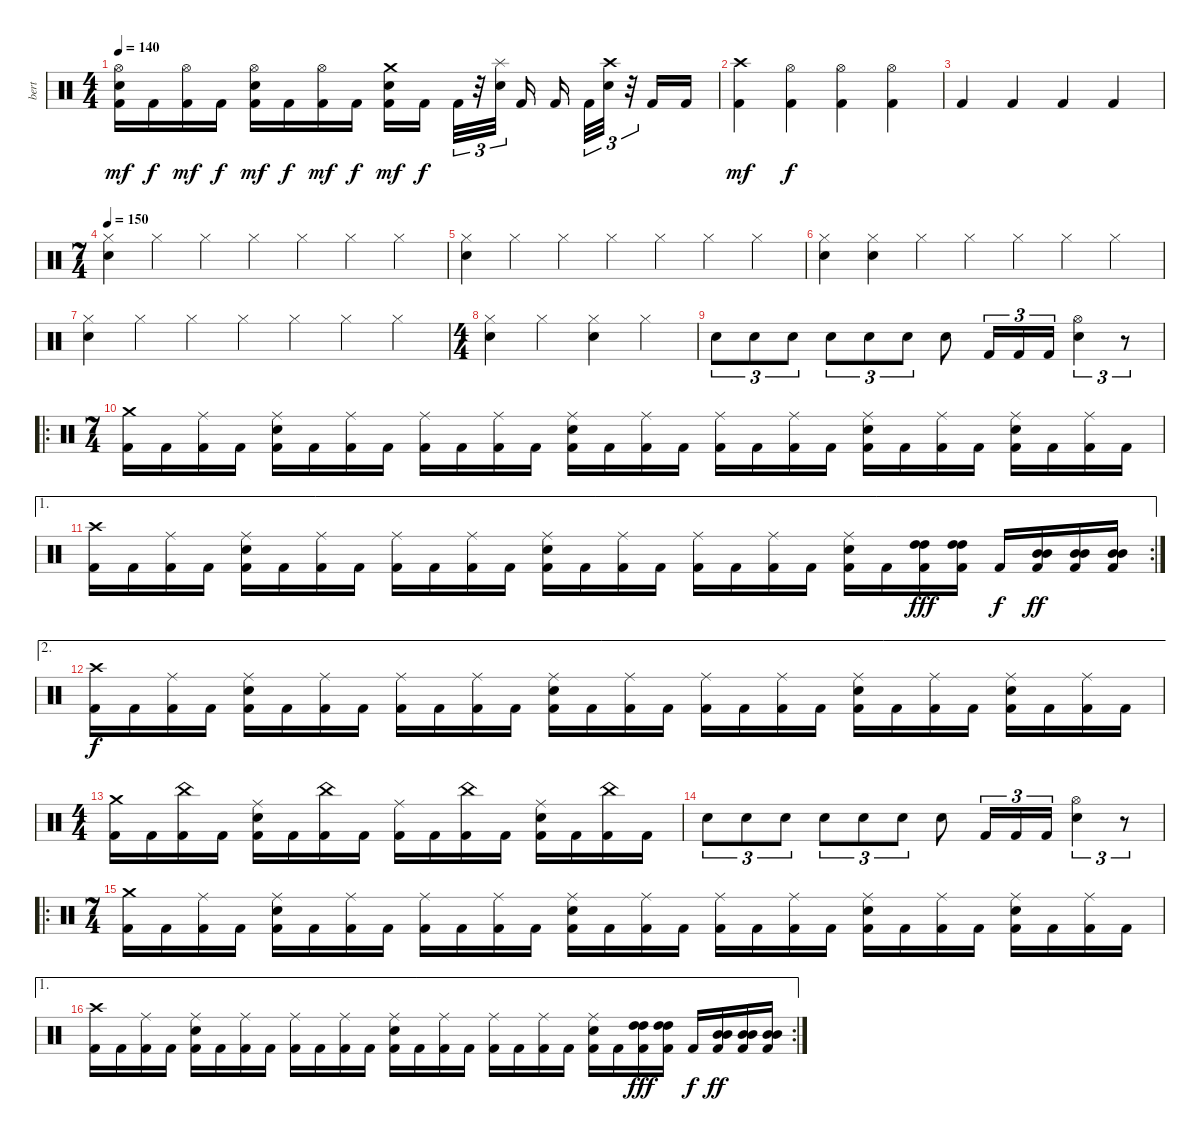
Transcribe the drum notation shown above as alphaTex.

\track ("bert" "bert") {instrument percussion}
\staff {score}
\articulation defaults
\ts (4 4)
\tempo 140
\clef neutral
\ks c
("Hi-Hat (open)" "Snare (hit) 2" "Kick (hit) 2").16{dy mf} "Kick (hit) 2".16{dy f} ("Hi-Hat (open)" "Kick (hit) 2").16{dy mf} "Kick (hit) 2".16{dy f} ("Hi-Hat (open)" "Snare (hit) 2" "Kick (hit) 2").16{dy mf} "Kick (hit) 2".16{dy f} ("Hi-Hat (open)" "Kick (hit) 2").16{dy mf} "Kick (hit) 2".16{dy f} ("Crash medium (hit)" "Snare (hit) 2" "Kick (hit) 2").16{dy mf} "Kick (hit) 2".16{dy f} "Kick (hit) 2".32{tu (3 2)} r.32{tu (3 2)} ("Splash (hit)" "Snare (hit) 2").32{tu (3 2)} "Kick (hit) 2".16 "Kick (hit) 2".16 "Kick (hit) 2".32{tu (3 2)} ("Crash high (hit)" "Snare (hit) 2").32{tu (3 2)} r.32{tu (3 2)} "Kick (hit) 2".16 "Kick (hit) 2".16 |
("Crash high (hit)" "Kick (hit) 2").4{dy mf} ("Hi-Hat (open)" "Kick (hit) 2").4{dy f} ("Hi-Hat (open)" "Kick (hit) 2").4 ("Hi-Hat (open)" "Kick (hit) 2").4 |
"Kick (hit) 2".4 "Kick (hit) 2".4 "Kick (hit) 2".4 "Kick (hit) 2".4 |
\ts (7 4)
\tempo 150
("Hi-Hat (closed)" "Snare (hit) 2").4 "Hi-Hat (closed)".4 "Hi-Hat (closed)".4 "Hi-Hat (closed)".4 "Hi-Hat (closed)".4 "Hi-Hat (closed)".4 "Hi-Hat (closed)".4 |
("Hi-Hat (closed)" "Snare (hit) 2").4 "Hi-Hat (closed)".4 "Hi-Hat (closed)".4 "Hi-Hat (closed)".4 "Hi-Hat (closed)".4 "Hi-Hat (closed)".4 "Hi-Hat (closed)".4 |
("Hi-Hat (closed)" "Snare (hit) 2").4 ("Hi-Hat (closed)" "Snare (hit) 2").4 "Hi-Hat (closed)".4 "Hi-Hat (closed)".4 "Hi-Hat (closed)".4 "Hi-Hat (closed)".4 "Hi-Hat (closed)".4 |
("Hi-Hat (closed)" "Snare (hit) 2").4 "Hi-Hat (closed)".4 "Hi-Hat (closed)".4 "Hi-Hat (closed)".4 "Hi-Hat (closed)".4 "Hi-Hat (closed)".4 "Hi-Hat (closed)".4 |
\ts (4 4)
("Hi-Hat (closed)" "Snare (hit) 2").4 "Hi-Hat (closed)".4 ("Hi-Hat (closed)" "Snare (hit) 2").4 "Hi-Hat (closed)".4 |
"Snare (hit) 2".8{tu (3 2)} "Snare (hit) 2".8{tu (3 2)} "Snare (hit) 2".8{tu (3 2)} "Snare (hit) 2".8{tu (3 2)} "Snare (hit) 2".8{tu (3 2)} "Snare (hit) 2".8{tu (3 2)} "Snare (hit) 2".8 "Kick (hit) 2".16{tu (3 2)} "Kick (hit) 2".16{tu (3 2)} "Kick (hit) 2".16{tu (3 2)} ("Hi-Hat (open)" "Snare (hit) 2").4{tu (3 2)} r.8{tu (3 2)} |
\ro
\ts (7 4)
("Crash medium (hit)" "Kick (hit) 2").16 "Kick (hit) 2".16 ("Ride (middle)" "Kick (hit) 2").16 "Kick (hit) 2".16 ("Ride (middle)" "Snare (hit) 2" "Kick (hit) 2").16 "Kick (hit) 2".16 ("Ride (middle)" "Kick (hit) 2").16 "Kick (hit) 2".16 ("Ride (middle)" "Kick (hit) 2").16 "Kick (hit) 2".16 ("Ride (middle)" "Kick (hit) 2").16 "Kick (hit) 2".16 ("Ride (middle)" "Snare (hit) 2" "Kick (hit) 2").16 "Kick (hit) 2".16 ("Ride (middle)" "Kick (hit) 2").16 "Kick (hit) 2".16 ("Ride (middle)" "Kick (hit) 2").16 "Kick (hit) 2".16 ("Ride (middle)" "Kick (hit) 2").16 "Kick (hit) 2".16 ("Ride (middle)" "Snare (hit) 2" "Kick (hit) 2").16 "Kick (hit) 2".16 ("Ride (middle)" "Kick (hit) 2").16 "Kick (hit) 2".16 ("Ride (middle)" "Snare (hit) 2" "Kick (hit) 2").16 "Kick (hit) 2".16 ("Ride (middle)" "Kick (hit) 2").16 "Kick (hit) 2".16 |
\ae 1
\rc 2
("Crash high (hit)" "Kick (hit) 2").16 "Kick (hit) 2".16 ("Ride (middle)" "Kick (hit) 2").16 "Kick (hit) 2".16 ("Ride (middle)" "Snare (hit) 2" "Kick (hit) 2").16 "Kick (hit) 2".16 ("Ride (middle)" "Kick (hit) 2").16 "Kick (hit) 2".16 ("Ride (middle)" "Kick (hit) 2").16 "Kick (hit) 2".16 ("Ride (middle)" "Kick (hit) 2").16 "Kick (hit) 2".16 ("Ride (middle)" "Snare (hit) 2" "Kick (hit) 2").16 "Kick (hit) 2".16 ("Ride (middle)" "Kick (hit) 2").16 "Kick (hit) 2".16 ("Ride (middle)" "Kick (hit) 2").16 "Kick (hit) 2".16 ("Ride (middle)" "Kick (hit) 2").16 "Kick (hit) 2".16 ("Ride (middle)" "Snare (hit) 2" "Kick (hit) 2").16 "Kick (hit) 2".16 ("High Tom (hit)" "High Tom (hit)" "Kick (hit) 2").16{dy fff} ("High Tom (hit)" "High Tom (hit)" "Kick (hit) 2").16 "Kick (hit) 2".16{dy f} ("Mid Tom (hit)" "Mid Tom (hit)" "Kick (hit) 2").16{dy ff} ("Mid Tom (hit)" "Mid Tom (hit)" "Kick (hit) 2").16 ("Mid Tom (hit)" "Mid Tom (hit)" "Kick (hit) 2").16 |
\ae 2
("Crash high (hit)" "Kick (hit) 2").16{dy f} "Kick (hit) 2".16 ("Ride (middle)" "Kick (hit) 2").16 "Kick (hit) 2".16 ("Ride (middle)" "Snare (hit) 2" "Kick (hit) 2").16 "Kick (hit) 2".16 ("Ride (middle)" "Kick (hit) 2").16 "Kick (hit) 2".16 ("Ride (middle)" "Kick (hit) 2").16 "Kick (hit) 2".16 ("Ride (middle)" "Kick (hit) 2").16 "Kick (hit) 2".16 ("Ride (middle)" "Snare (hit) 2" "Kick (hit) 2").16 "Kick (hit) 2".16 ("Ride (middle)" "Kick (hit) 2").16 "Kick (hit) 2".16 ("Ride (middle)" "Kick (hit) 2").16 "Kick (hit) 2".16 ("Ride (middle)" "Kick (hit) 2").16 "Kick (hit) 2".16 ("Ride (middle)" "Snare (hit) 2" "Kick (hit) 2").16 "Kick (hit) 2".16 ("Ride (middle)" "Kick (hit) 2").16 "Kick (hit) 2".16 ("Ride (middle)" "Snare (hit) 2" "Kick (hit) 2").16 "Kick (hit) 2".16 ("Ride (middle)" "Kick (hit) 2").16 "Kick (hit) 2".16 |
\ts (4 4)
("Crash medium (hit)" "Kick (hit) 2").16 "Kick (hit) 2".16 ("China (hit)" "Kick (hit) 2").16 "Kick (hit) 2".16 ("Ride (middle)" "Snare (hit) 2" "Kick (hit) 2").16 "Kick (hit) 2".16 ("China (hit)" "Kick (hit) 2").16 "Kick (hit) 2".16 ("Ride (middle)" "Kick (hit) 2").16 "Kick (hit) 2".16 ("China (hit)" "Kick (hit) 2").16 "Kick (hit) 2".16 ("Ride (middle)" "Snare (hit) 2" "Kick (hit) 2").16 "Kick (hit) 2".16 ("China (hit)" "Kick (hit) 2").16 "Kick (hit) 2".16 |
"Snare (hit) 2".8{tu (3 2)} "Snare (hit) 2".8{tu (3 2)} "Snare (hit) 2".8{tu (3 2)} "Snare (hit) 2".8{tu (3 2)} "Snare (hit) 2".8{tu (3 2)} "Snare (hit) 2".8{tu (3 2)} "Snare (hit) 2".8 "Kick (hit) 2".16{tu (3 2)} "Kick (hit) 2".16{tu (3 2)} "Kick (hit) 2".16{tu (3 2)} ("Hi-Hat (open)" "Snare (hit) 2").4{tu (3 2)} r.8{tu (3 2)} |
\ro
\ts (7 4)
("Crash medium (hit)" "Kick (hit) 2").16 "Kick (hit) 2".16 ("Ride (middle)" "Kick (hit) 2").16 "Kick (hit) 2".16 ("Ride (middle)" "Snare (hit) 2" "Kick (hit) 2").16 "Kick (hit) 2".16 ("Ride (middle)" "Kick (hit) 2").16 "Kick (hit) 2".16 ("Ride (middle)" "Kick (hit) 2").16 "Kick (hit) 2".16 ("Ride (middle)" "Kick (hit) 2").16 "Kick (hit) 2".16 ("Ride (middle)" "Snare (hit) 2" "Kick (hit) 2").16 "Kick (hit) 2".16 ("Ride (middle)" "Kick (hit) 2").16 "Kick (hit) 2".16 ("Ride (middle)" "Kick (hit) 2").16 "Kick (hit) 2".16 ("Ride (middle)" "Kick (hit) 2").16 "Kick (hit) 2".16 ("Ride (middle)" "Snare (hit) 2" "Kick (hit) 2").16 "Kick (hit) 2".16 ("Ride (middle)" "Kick (hit) 2").16 "Kick (hit) 2".16 ("Ride (middle)" "Snare (hit) 2" "Kick (hit) 2").16 "Kick (hit) 2".16 ("Ride (middle)" "Kick (hit) 2").16 "Kick (hit) 2".16 |
\ae 1
\rc 2
("Crash high (hit)" "Kick (hit) 2").16 "Kick (hit) 2".16 ("Ride (middle)" "Kick (hit) 2").16 "Kick (hit) 2".16 ("Ride (middle)" "Snare (hit) 2" "Kick (hit) 2").16 "Kick (hit) 2".16 ("Ride (middle)" "Kick (hit) 2").16 "Kick (hit) 2".16 ("Ride (middle)" "Kick (hit) 2").16 "Kick (hit) 2".16 ("Ride (middle)" "Kick (hit) 2").16 "Kick (hit) 2".16 ("Ride (middle)" "Snare (hit) 2" "Kick (hit) 2").16 "Kick (hit) 2".16 ("Ride (middle)" "Kick (hit) 2").16 "Kick (hit) 2".16 ("Ride (middle)" "Kick (hit) 2").16 "Kick (hit) 2".16 ("Ride (middle)" "Kick (hit) 2").16 "Kick (hit) 2".16 ("Ride (middle)" "Snare (hit) 2" "Kick (hit) 2").16 "Kick (hit) 2".16 ("High Tom (hit)" "High Tom (hit)" "Kick (hit) 2").16{dy fff} ("High Tom (hit)" "High Tom (hit)" "Kick (hit) 2").16 "Kick (hit) 2".16{dy f} ("Mid Tom (hit)" "Mid Tom (hit)" "Kick (hit) 2").16{dy ff} ("Mid Tom (hit)" "Mid Tom (hit)" "Kick (hit) 2").16 ("Mid Tom (hit)" "Mid Tom (hit)" "Kick (hit) 2").16
